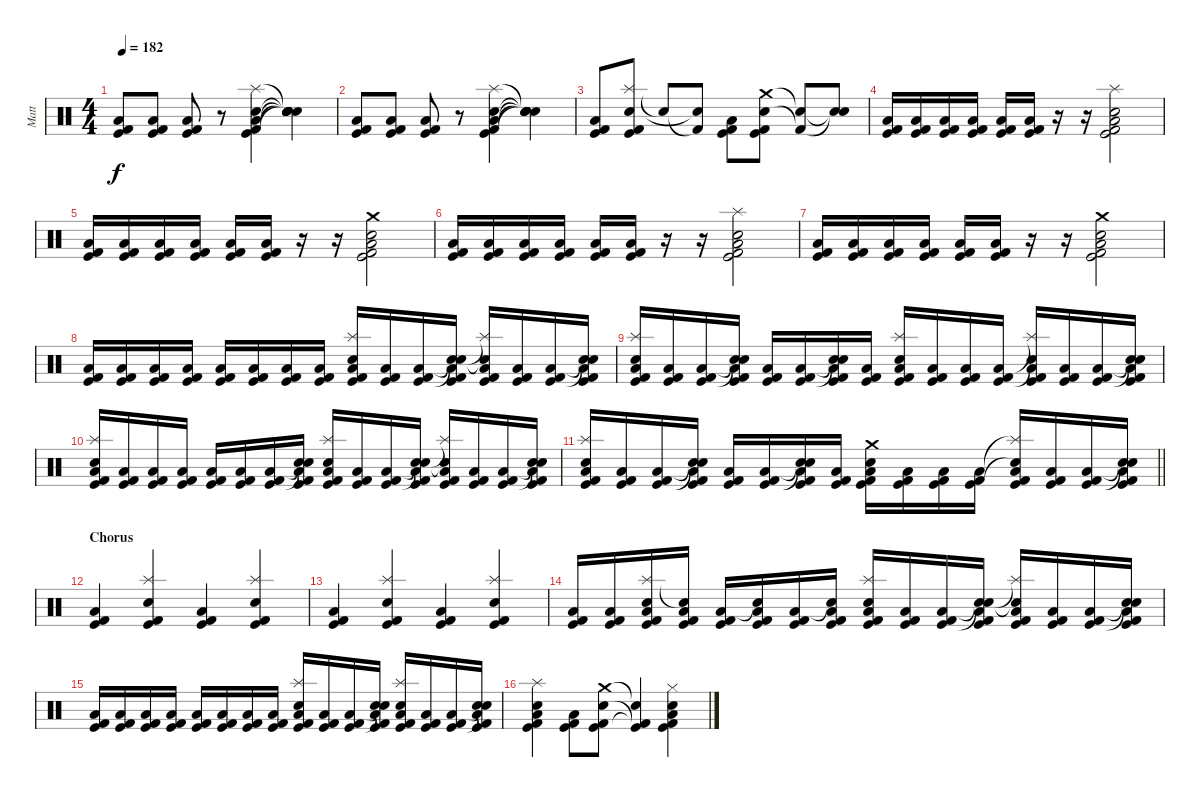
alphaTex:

\track ("Matt" "Matt") {instrument percussion}
\staff {score}
\articulation defaults
\ts (4 4)
\tempo 182
\clef neutral
\ks c
("Low Floor Tom (hit)" "Kick (hit)" "Kick (hit) 2").8{dy f} ("Low Floor Tom (hit)" "Kick (hit)" "Kick (hit) 2").8 ("Low Floor Tom (hit)" "Kick (hit)" "Kick (hit) 2").8 r.8 ("Splash (hit)" "Electric Snare (hit)" "Low Floor Tom (hit)" "Kick (hit)" "Kick (hit) 2").4 ("Snare (hit)"{t} "Snare (hit)"{t} "Snare (hit)"{t} "Snare (hit)"{t} "Snare (hit)"{t}).4 |
("Low Floor Tom (hit)" "Kick (hit)" "Kick (hit) 2").8 ("Low Floor Tom (hit)" "Kick (hit)" "Kick (hit) 2").8 ("Low Floor Tom (hit)" "Kick (hit)" "Kick (hit) 2").8 r.8 ("Splash (hit)" "Electric Snare (hit)" "Low Floor Tom (hit)" "Kick (hit)" "Kick (hit) 2").4 ("Snare (hit)"{t} "Snare (hit)"{t} "Snare (hit)"{t} "Snare (hit)"{t} "Snare (hit)"{t}).4 |
("Low Floor Tom (hit)" "Kick (hit)" "Kick (hit) 2").8 ("Splash (hit)" "Electric Snare (hit)" "Kick (hit)" "Kick (hit) 2").8 "Snare (hit)"{t}.8 ("Kick (hit) 2"{t} "Snare (hit)"{t}).8 ("Low Floor Tom (hit)" "Kick (hit)" "Kick (hit) 2").8 ("Crash medium (hit)" "Electric Snare (hit)" "Kick (hit)" "Kick (hit) 2").8 ("Snare (hit)"{t} "Kick (hit) 2"{t}).8 ("Snare (hit)"{t} "Snare (hit)"{t}).8 |
("Low Floor Tom (hit)" "Kick (hit)" "Kick (hit) 2").16 ("Low Floor Tom (hit)" "Kick (hit)" "Kick (hit) 2").16 ("Low Floor Tom (hit)" "Kick (hit)" "Kick (hit) 2").16 ("Low Floor Tom (hit)" "Kick (hit)" "Kick (hit) 2").16 ("Low Floor Tom (hit)" "Kick (hit)" "Kick (hit) 2").16 ("Low Floor Tom (hit)" "Kick (hit)" "Kick (hit) 2").16 r.16 r.16 ("Splash (hit)" "Electric Snare (hit)" "Low Floor Tom (hit)" "Kick (hit)" "Kick (hit) 2").2 |
("Low Floor Tom (hit)" "Kick (hit)" "Kick (hit) 2").16 ("Low Floor Tom (hit)" "Kick (hit)" "Kick (hit) 2").16 ("Low Floor Tom (hit)" "Kick (hit)" "Kick (hit) 2").16 ("Low Floor Tom (hit)" "Kick (hit)" "Kick (hit) 2").16 ("Low Floor Tom (hit)" "Kick (hit)" "Kick (hit) 2").16 ("Low Floor Tom (hit)" "Kick (hit)" "Kick (hit) 2").16 r.16 r.16 ("Crash medium (hit)" "Electric Snare (hit)" "Low Floor Tom (hit)" "Kick (hit)" "Kick (hit) 2").2 |
("Low Floor Tom (hit)" "Kick (hit)" "Kick (hit) 2").16 ("Low Floor Tom (hit)" "Kick (hit)" "Kick (hit) 2").16 ("Low Floor Tom (hit)" "Kick (hit)" "Kick (hit) 2").16 ("Low Floor Tom (hit)" "Kick (hit)" "Kick (hit) 2").16 ("Low Floor Tom (hit)" "Kick (hit)" "Kick (hit) 2").16 ("Low Floor Tom (hit)" "Kick (hit)" "Kick (hit) 2").16 r.16 r.16 ("Splash (hit)" "Electric Snare (hit)" "Low Floor Tom (hit)" "Kick (hit)" "Kick (hit) 2").2 |
("Low Floor Tom (hit)" "Kick (hit)" "Kick (hit) 2").16 ("Low Floor Tom (hit)" "Kick (hit)" "Kick (hit) 2").16 ("Low Floor Tom (hit)" "Kick (hit)" "Kick (hit) 2").16 ("Low Floor Tom (hit)" "Kick (hit)" "Kick (hit) 2").16 ("Low Floor Tom (hit)" "Kick (hit)" "Kick (hit) 2").16 ("Low Floor Tom (hit)" "Kick (hit)" "Kick (hit) 2").16 r.16 r.16 ("Crash medium (hit)" "Electric Snare (hit)" "Low Floor Tom (hit)" "Kick (hit)" "Kick (hit) 2").2 |
("Low Floor Tom (hit)" "Kick (hit)" "Kick (hit) 2").16 ("Low Floor Tom (hit)" "Kick (hit)" "Kick (hit) 2").16 ("Low Floor Tom (hit)" "Kick (hit)" "Kick (hit) 2").16 ("Low Floor Tom (hit)" "Kick (hit)" "Kick (hit) 2").16 ("Low Floor Tom (hit)" "Kick (hit)" "Kick (hit) 2").16 ("Low Floor Tom (hit)" "Kick (hit)" "Kick (hit) 2").16 ("Low Floor Tom (hit)" "Kick (hit)" "Kick (hit) 2").16 ("Low Floor Tom (hit)" "Kick (hit)" "Kick (hit) 2").16 ("Splash (hit)" "Electric Snare (hit)" "Low Floor Tom (hit)" "Kick (hit)" "Kick (hit) 2").16 ("Low Floor Tom (hit)" "Kick (hit)" "Kick (hit) 2").16 ("Low Floor Tom (hit)" "Kick (hit)" "Kick (hit) 2").16 ("Snare (hit)"{t} "Snare (hit)"{t} "Low Floor Tom (hit)" "Kick (hit)" "Kick (hit) 2").16 ("Splash (hit)"{t} "Electric Snare (hit)"{t} "Low Floor Tom (hit)" "Kick (hit)" "Kick (hit) 2").16 ("Low Floor Tom (hit)" "Kick (hit)" "Kick (hit) 2").16 ("Low Floor Tom (hit)" "Kick (hit)" "Kick (hit) 2").16 ("Snare (hit)"{t} "Snare (hit)"{t} "Low Floor Tom (hit)" "Kick (hit)" "Kick (hit) 2").16 |
("Splash (hit)" "Electric Snare (hit)" "Low Floor Tom (hit)" "Kick (hit)" "Kick (hit) 2").16 ("Low Floor Tom (hit)" "Kick (hit)" "Kick (hit) 2").16 ("Low Floor Tom (hit)" "Kick (hit)" "Kick (hit) 2").16 ("Snare (hit)"{t} "Snare (hit)"{t} "Low Floor Tom (hit)" "Kick (hit)" "Kick (hit) 2").16 ("Low Floor Tom (hit)" "Kick (hit)" "Kick (hit) 2").16 ("Low Floor Tom (hit)" "Kick (hit)" "Kick (hit) 2").16 ("Snare (hit)"{t} "Snare (hit)"{t} "Low Floor Tom (hit)" "Kick (hit)" "Kick (hit) 2").16 ("Low Floor Tom (hit)" "Kick (hit)" "Kick (hit) 2").16 ("Splash (hit)" "Electric Snare (hit)" "Low Floor Tom (hit)" "Kick (hit)" "Kick (hit) 2").16 ("Low Floor Tom (hit)" "Kick (hit)" "Kick (hit) 2").16 ("Low Floor Tom (hit)" "Kick (hit)" "Kick (hit) 2").16 ("Low Floor Tom (hit)" "Kick (hit)" "Kick (hit) 2").16 ("Splash (hit)"{t} "Electric Snare (hit)"{t} "Low Floor Tom (hit)" "Kick (hit)" "Kick (hit) 2").16 ("Low Floor Tom (hit)" "Kick (hit)" "Kick (hit) 2").16 ("Low Floor Tom (hit)" "Kick (hit)" "Kick (hit) 2").16 ("Snare (hit)"{t} "Snare (hit)"{t} "Low Floor Tom (hit)" "Kick (hit)" "Kick (hit) 2").16 |
("Splash (hit)" "Electric Snare (hit)" "Low Floor Tom (hit)" "Kick (hit)" "Kick (hit) 2").16 ("Low Floor Tom (hit)" "Kick (hit)" "Kick (hit) 2").16 ("Low Floor Tom (hit)" "Kick (hit)" "Kick (hit) 2").16 ("Low Floor Tom (hit)" "Kick (hit)" "Kick (hit) 2").16 ("Low Floor Tom (hit)" "Kick (hit)" "Kick (hit) 2").16 ("Low Floor Tom (hit)" "Kick (hit)" "Kick (hit) 2").16 ("Low Floor Tom (hit)" "Kick (hit)" "Kick (hit) 2").16 ("Snare (hit)"{t} "Snare (hit)"{t} "Low Floor Tom (hit)" "Kick (hit)" "Kick (hit) 2").16 ("Splash (hit)" "Electric Snare (hit)" "Low Floor Tom (hit)" "Kick (hit)" "Kick (hit) 2").16 ("Low Floor Tom (hit)" "Kick (hit)" "Kick (hit) 2").16 ("Low Floor Tom (hit)" "Kick (hit)" "Kick (hit) 2").16 ("Snare (hit)"{t} "Snare (hit)"{t} "Low Floor Tom (hit)" "Kick (hit)" "Kick (hit) 2").16 ("Splash (hit)"{t} "Electric Snare (hit)"{t} "Low Floor Tom (hit)" "Kick (hit)" "Kick (hit) 2").16 ("Low Floor Tom (hit)" "Kick (hit)" "Kick (hit) 2").16 ("Low Floor Tom (hit)" "Kick (hit)" "Kick (hit) 2").16 ("Snare (hit)"{t} "Snare (hit)"{t} "Low Floor Tom (hit)" "Kick (hit)" "Kick (hit) 2").16 |
\barLineRight lightlight
("Splash (hit)" "Electric Snare (hit)" "Low Floor Tom (hit)" "Kick (hit)" "Kick (hit) 2").16 ("Low Floor Tom (hit)" "Kick (hit)" "Kick (hit) 2").16 ("Low Floor Tom (hit)" "Kick (hit)" "Kick (hit) 2").16 ("Snare (hit)"{t} "Snare (hit)"{t} "Low Floor Tom (hit)" "Kick (hit)" "Kick (hit) 2").16 ("Low Floor Tom (hit)" "Kick (hit)" "Kick (hit) 2").16 ("Low Floor Tom (hit)" "Kick (hit)" "Kick (hit) 2").16 ("Snare (hit)"{t} "Snare (hit)"{t} "Low Floor Tom (hit)" "Kick (hit)" "Kick (hit) 2").16 ("Low Floor Tom (hit)" "Kick (hit)" "Kick (hit) 2").16 ("Crash medium (hit)" "Electric Snare (hit)" "Low Floor Tom (hit)" "Kick (hit)" "Kick (hit) 2").16 ("Low Floor Tom (hit)" "Kick (hit)" "Kick (hit) 2").16 ("Low Floor Tom (hit)" "Kick (hit)" "Kick (hit) 2").16 ("Low Floor Tom (hit)" "Kick (hit)" "Kick (hit) 2").16 ("Splash (hit)"{t} "Electric Snare (hit)"{t} "Low Floor Tom (hit)" "Kick (hit)" "Kick (hit) 2").16 ("Low Floor Tom (hit)" "Kick (hit)" "Kick (hit) 2").16 ("Low Floor Tom (hit)" "Kick (hit)" "Kick (hit) 2").16 ("Snare (hit)"{t} "Snare (hit)"{t} "Low Floor Tom (hit)" "Kick (hit)" "Kick (hit) 2").16 |
\section ("" "Chorus")
("Low Floor Tom (hit)" "Kick (hit)" "Kick (hit) 2").4 ("Splash (hit)" "Electric Snare (hit)" "Kick (hit)" "Kick (hit) 2").4 ("Low Floor Tom (hit)" "Kick (hit)" "Kick (hit) 2").4 ("Splash (hit)" "Electric Snare (hit)" "Kick (hit)" "Kick (hit) 2").4 |
("Low Floor Tom (hit)" "Kick (hit)" "Kick (hit) 2").4 ("Splash (hit)" "Electric Snare (hit)" "Kick (hit)" "Kick (hit) 2").4 ("Low Floor Tom (hit)" "Kick (hit)" "Kick (hit) 2").4 ("Splash (hit)" "Electric Snare (hit)" "Kick (hit)" "Kick (hit) 2").4 |
("Low Floor Tom (hit)" "Kick (hit)" "Kick (hit) 2").16 ("Low Floor Tom (hit)" "Kick (hit)" "Kick (hit) 2").16 ("Splash (hit)" "Electric Snare (hit)" "Low Floor Tom (hit)" "Kick (hit)" "Kick (hit) 2").16 ("Snare (hit)"{t} "Low Floor Tom (hit)" "Kick (hit)" "Kick (hit) 2").16 ("Low Floor Tom (hit)" "Kick (hit)" "Kick (hit) 2").16 ("Snare (hit)"{t} "Low Floor Tom (hit)" "Kick (hit)" "Kick (hit) 2").16 ("Low Floor Tom (hit)" "Kick (hit)" "Kick (hit) 2").16 ("Snare (hit)"{t} "Low Floor Tom (hit)" "Kick (hit)" "Kick (hit) 2").16 ("Splash (hit)" "Electric Snare (hit)" "Low Floor Tom (hit)" "Kick (hit)" "Kick (hit) 2").16 ("Low Floor Tom (hit)" "Kick (hit)" "Kick (hit) 2").16 ("Low Floor Tom (hit)" "Kick (hit)" "Kick (hit) 2").16 ("Snare (hit)"{t} "Snare (hit)"{t} "Low Floor Tom (hit)" "Kick (hit)" "Kick (hit) 2").16 ("Splash (hit)"{t} "Electric Snare (hit)"{t} "Low Floor Tom (hit)" "Kick (hit)" "Kick (hit) 2").16 ("Low Floor Tom (hit)" "Kick (hit)" "Kick (hit) 2").16 ("Low Floor Tom (hit)" "Kick (hit)" "Kick (hit) 2").16 ("Snare (hit)"{t} "Snare (hit)"{t} "Low Floor Tom (hit)" "Kick (hit)" "Kick (hit) 2").16 |
("Low Floor Tom (hit)" "Kick (hit)" "Kick (hit) 2").16 ("Low Floor Tom (hit)" "Kick (hit)" "Kick (hit) 2").16 ("Low Floor Tom (hit)" "Kick (hit)" "Kick (hit) 2").16 ("Low Floor Tom (hit)" "Kick (hit)" "Kick (hit) 2").16 ("Low Floor Tom (hit)" "Kick (hit)" "Kick (hit) 2").16 ("Low Floor Tom (hit)" "Kick (hit)" "Kick (hit) 2").16 ("Low Floor Tom (hit)" "Kick (hit)" "Kick (hit) 2").16 ("Low Floor Tom (hit)" "Kick (hit)" "Kick (hit) 2").16 ("Splash (hit)" "Electric Snare (hit)" "Low Floor Tom (hit)" "Kick (hit)" "Kick (hit) 2").16 ("Low Floor Tom (hit)" "Kick (hit)" "Kick (hit) 2").16 ("Low Floor Tom (hit)" "Kick (hit)" "Kick (hit) 2").16 ("Snare (hit)"{t} "Snare (hit)"{t} "Low Floor Tom (hit)" "Kick (hit)" "Kick (hit) 2").16 ("Splash (hit)" "Electric Snare (hit)" "Low Floor Tom (hit)" "Kick (hit)" "Kick (hit) 2").16 ("Low Floor Tom (hit)" "Kick (hit)" "Kick (hit) 2").16 ("Low Floor Tom (hit)" "Kick (hit)" "Kick (hit) 2").16 ("Snare (hit)"{t} "Snare (hit)"{t} "Low Floor Tom (hit)" "Kick (hit)" "Kick (hit) 2").16 |
("Splash (hit)" "Electric Snare (hit)" "Low Floor Tom (hit)" "Kick (hit)" "Kick (hit) 2").4 ("Low Floor Tom (hit)" "Kick (hit)" "Kick (hit) 2").8 ("Crash medium (hit)" "Electric Snare (hit)" "Kick (hit)" "Kick (hit) 2").8 ("Electric Snare (hit)"{t} "Kick (hit)"{t} "Kick (hit) 2"{t}).4 ("Hi-Hat (closed)" "Electric Snare (hit)" "Low Floor Tom (hit)" "Kick (hit)" "Kick (hit) 2").4
